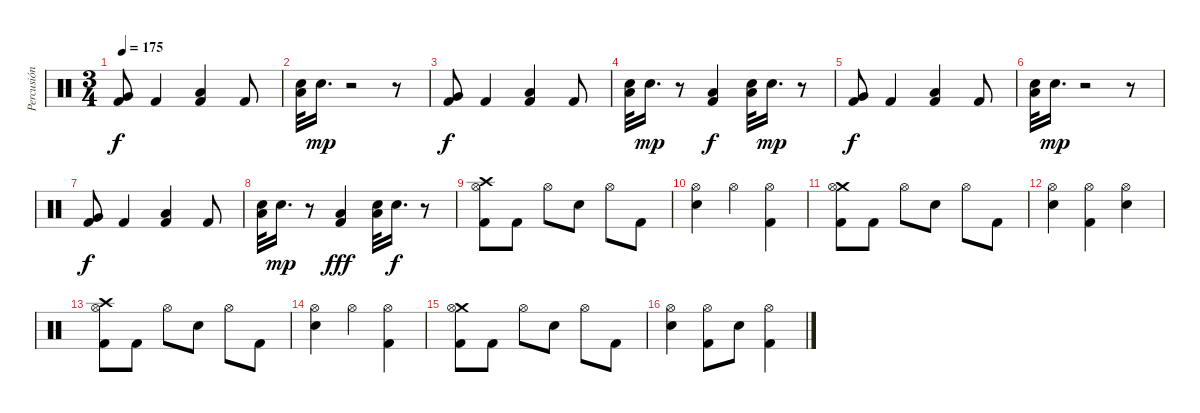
\track ("Percusión" "Percusión") {instrument percussion}
\staff {score}
\articulation defaults
\ts (3 4)
\tempo 175
\clef neutral
\ks c
("Very Low Tom (hit)" "Kick (hit) 2").8{dy f} "Kick (hit) 2".4 ("Low Tom (hit)" "Kick (hit) 2").4 "Kick (hit) 2".8 |
("Low Floor Tom (hit)" "Snare (hit) 2").32 "Snare (hit) 2".16{d dy mp} r.2 r.8 |
("Very Low Tom (hit)" "Kick (hit) 2").8{dy f} "Kick (hit) 2".4 ("Low Tom (hit)" "Kick (hit) 2").4 "Kick (hit) 2".8 |
("Low Floor Tom (hit)" "Snare (hit) 2").32 "Snare (hit) 2".16{d dy mp} r.8 ("Low Tom (hit)" "Kick (hit) 2").4{dy f} ("Low Floor Tom (hit)" "Snare (hit) 2").32 "Snare (hit) 2".16{d dy mp} r.8 |
("Very Low Tom (hit)" "Kick (hit) 2").8{dy f} "Kick (hit) 2".4 ("Low Tom (hit)" "Kick (hit) 2").4 "Kick (hit) 2".8 |
("Low Floor Tom (hit)" "Snare (hit) 2").32 "Snare (hit) 2".16{d dy mp} r.2 r.8 |
("Very Low Tom (hit)" "Kick (hit) 2").8{dy f} "Kick (hit) 2".4 ("Low Tom (hit)" "Kick (hit) 2").4 "Kick (hit) 2".8 |
("Low Floor Tom (hit)" "Snare (hit) 2").32 "Snare (hit) 2".16{d dy mp} r.8 ("Low Tom (hit)" "Kick (hit) 2").4{dy fff} ("Low Floor Tom (hit)" "Snare (hit) 2").32 "Snare (hit) 2".16{d dy f} r.8 |
("Crash high (hit)" "Hi-Hat (open)" "Kick (hit) 2").8 "Kick (hit) 2".8 "Hi-Hat (open)".8 "Snare (hit) 2".8 "Hi-Hat (open)".8 "Kick (hit) 2".8 |
("Hi-Hat (open)" "Snare (hit) 2").4 "Hi-Hat (open)".4 ("Hi-Hat (open)" "Kick (hit) 2").4 |
("Crash medium (hit)" "Hi-Hat (open)" "Kick (hit) 2").8 "Kick (hit) 2".8 "Hi-Hat (open)".8 "Snare (hit) 2".8 "Hi-Hat (open)".8 "Kick (hit) 2".8 |
("Hi-Hat (open)" "Snare (hit) 2").4 ("Hi-Hat (open)" "Kick (hit) 2").4 ("Hi-Hat (open)" "Snare (hit) 2").4 |
("Crash high (hit)" "Hi-Hat (open)" "Kick (hit) 2").8 "Kick (hit) 2".8 "Hi-Hat (open)".8 "Snare (hit) 2".8 "Hi-Hat (open)".8 "Kick (hit) 2".8 |
("Hi-Hat (open)" "Snare (hit) 2").4 "Hi-Hat (open)".4 ("Hi-Hat (open)" "Kick (hit) 2").4 |
("Crash medium (hit)" "Hi-Hat (open)" "Kick (hit) 2").8 "Kick (hit) 2".8 "Hi-Hat (open)".8 "Snare (hit) 2".8 "Hi-Hat (open)".8 "Kick (hit) 2".8 |
("Hi-Hat (open)" "Snare (hit) 2").4 ("Hi-Hat (open)" "Kick (hit) 2").8 "Snare (hit) 2".8 ("Hi-Hat (open)" "Kick (hit) 2").4
